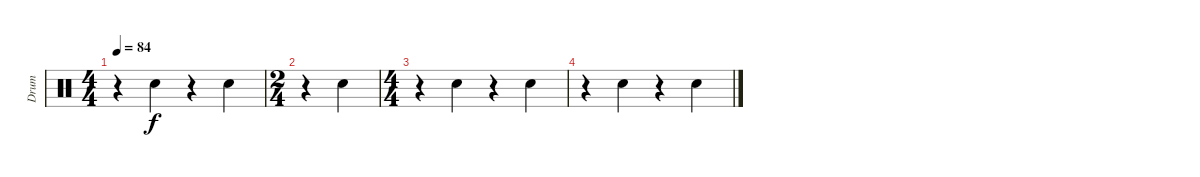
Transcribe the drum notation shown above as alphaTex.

\track ("Drum" "Drum") {instrument percussion}
\staff {score}
\articulation defaults
\ts (4 4)
\tempo 84
\clef neutral
\ks c
r.4{dy f} "Electric Snare (hit)".4 r.4 "Electric Snare (hit)".4 |
\ts (2 4)
r.4 "Electric Snare (hit)".4{volume 1} |
\ts (4 4)
r.4 "Electric Snare (hit)".4 r.4 "Electric Snare (hit)".4 |
r.4 "Electric Snare (hit)".4 r.4 "Electric Snare (hit)".4
